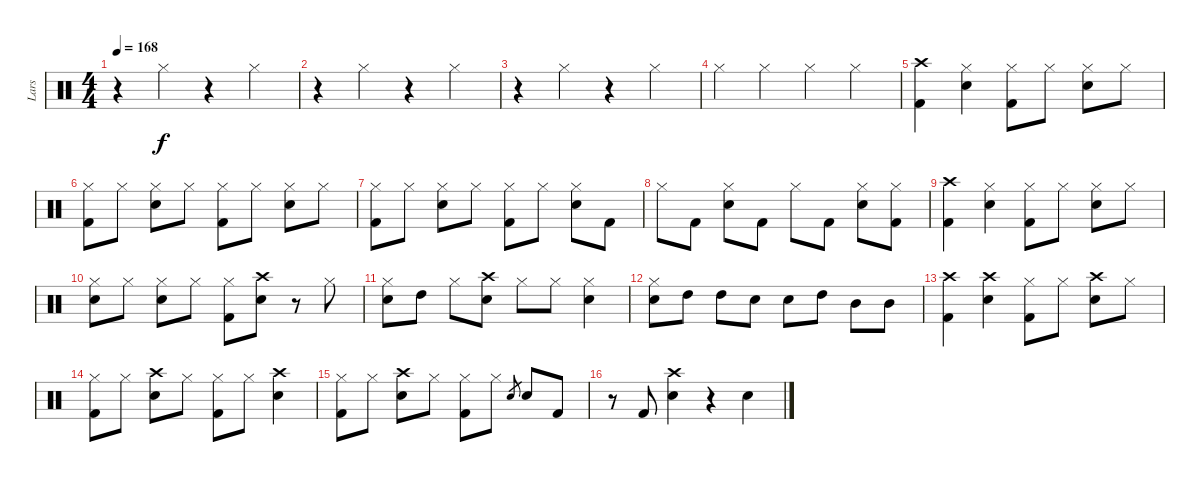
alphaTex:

\track ("Lars" "Lars") {instrument percussion}
\staff {score}
\articulation defaults
\ts (4 4)
\tempo 168
\clef neutral
\ks c
r.4{dy f} "Hi-Hat (closed)".4 r.4 "Hi-Hat (closed)".4 |
r.4 "Hi-Hat (closed)".4 r.4 "Hi-Hat (closed)".4 |
r.4 "Hi-Hat (closed)".4 r.4 "Hi-Hat (closed)".4 |
"Hi-Hat (closed)".4 "Hi-Hat (closed)".4 "Hi-Hat (closed)".4 "Hi-Hat (closed)".4 |
("Crash high (hit)" "Kick (hit) 2").4 ("Hi-Hat (closed)" "Snare (hit) 2").4 ("Hi-Hat (closed)" "Kick (hit) 2").8 "Hi-Hat (closed)".8 ("Hi-Hat (closed)" "Snare (hit) 2").8 "Hi-Hat (closed)".8 |
("Hi-Hat (closed)" "Kick (hit) 2").8 "Hi-Hat (closed)".8 ("Hi-Hat (closed)" "Snare (hit) 2").8 "Hi-Hat (closed)".8 ("Hi-Hat (closed)" "Kick (hit) 2").8 "Hi-Hat (closed)".8 ("Hi-Hat (closed)" "Snare (hit) 2").8 "Hi-Hat (closed)".8 |
("Hi-Hat (closed)" "Kick (hit) 2").8 "Hi-Hat (closed)".8 ("Hi-Hat (closed)" "Snare (hit) 2").8 "Hi-Hat (closed)".8 ("Hi-Hat (closed)" "Kick (hit) 2").8 "Hi-Hat (closed)".8 ("Hi-Hat (closed)" "Snare (hit) 2").8 "Kick (hit) 2".8 |
"Hi-Hat (closed)".8 "Kick (hit) 2".8 ("Hi-Hat (closed)" "Snare (hit) 2").8 "Kick (hit) 2".8 "Hi-Hat (closed)".8 "Kick (hit) 2".8 ("Hi-Hat (closed)" "Snare (hit) 2").8 ("Hi-Hat (closed)" "Kick (hit) 2").8 |
("Crash high (hit)" "Kick (hit) 2").4 ("Hi-Hat (closed)" "Snare (hit) 2").4 ("Hi-Hat (closed)" "Kick (hit) 2").8 "Hi-Hat (closed)".8 ("Hi-Hat (closed)" "Snare (hit) 2").8 "Hi-Hat (closed)".8 |
("Hi-Hat (closed)" "Snare (hit) 2").8 "Hi-Hat (closed)".8 ("Hi-Hat (closed)" "Snare (hit) 2").8 "Hi-Hat (closed)".8 ("Hi-Hat (closed)" "Kick (hit) 2").8 ("Crash high (hit)" "Snare (hit) 2").8 r.8 "Hi-Hat (closed)".8 |
("Hi-Hat (closed)" "Snare (hit) 2").8 "High Tom (hit)".8 "Hi-Hat (closed)".8 ("Crash high (hit)" "Snare (hit) 2").8 "Hi-Hat (closed)".8 "Hi-Hat (closed)".8 ("Hi-Hat (closed)" "Snare (hit) 2").4 |
("Hi-Hat (closed)" "Snare (hit) 2").8 "High Tom (hit)".8 "High Tom (hit)".8 "Snare (hit) 2".8 "Snare (hit) 2".8 "High Tom (hit)".8 "Mid Tom (hit)".8 "Mid Tom (hit)".8 |
("Crash high (hit)" "Kick (hit) 2").4 ("Crash high (hit)" "Snare (hit) 2").4 ("Hi-Hat (closed)" "Kick (hit) 2").8 "Hi-Hat (closed)".8 ("Crash high (hit)" "Snare (hit) 2").8 "Hi-Hat (closed)".8 |
("Hi-Hat (closed)" "Kick (hit) 2").8 "Hi-Hat (closed)".8 ("Crash high (hit)" "Snare (hit) 2").8 "Hi-Hat (closed)".8 ("Hi-Hat (closed)" "Kick (hit) 2").8 "Hi-Hat (closed)".8 ("Crash high (hit)" "Snare (hit) 2").4 |
("Hi-Hat (closed)" "Kick (hit) 2").8 "Hi-Hat (closed)".8 ("Crash high (hit)" "Snare (hit) 2").8 "Hi-Hat (closed)".8 ("Hi-Hat (closed)" "Kick (hit) 2").8 "Hi-Hat (closed)".8 "Snare (hit) 2".8{gr} "Snare (hit) 2".8 "Kick (hit) 2".8 |
r.8 "Kick (hit) 2".8 ("Crash high (hit)" "Snare (hit) 2").4 r.4 "Snare (hit) 2".4
